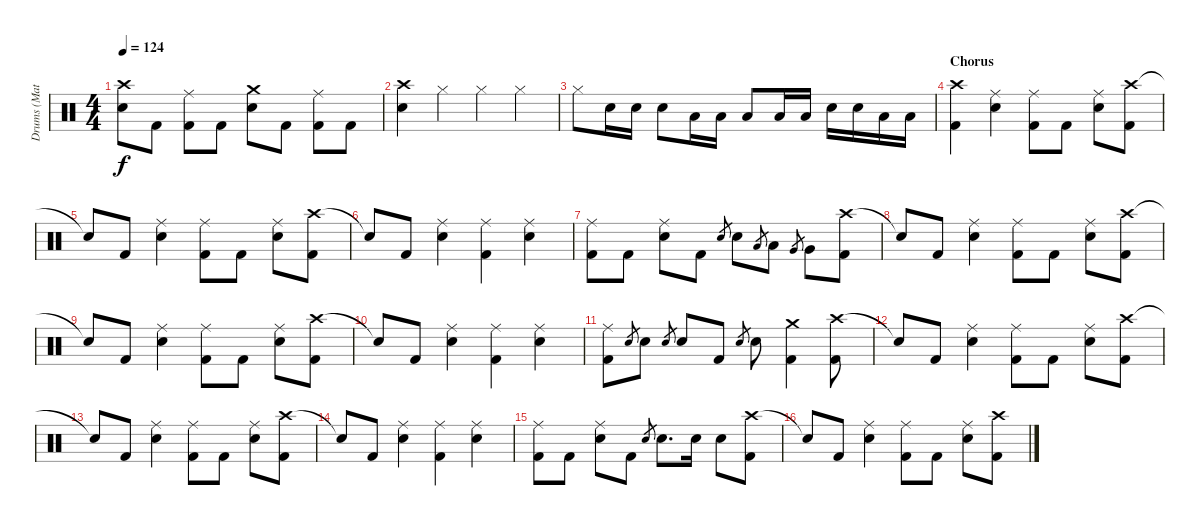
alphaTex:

\track ("Drums (Matt)" "Drums (Mat") {instrument percussion}
\staff {score}
\articulation defaults
\ts (4 4)
\tempo 124
\clef neutral
\ks c
("Crash high (hit)" "Snare (hit) 2").8{dy f} "Kick (hit) 2".8 ("Ride (middle)" "Kick (hit) 2").8 "Kick (hit) 2".8 ("Crash medium (hit)" "Snare (hit) 2").8 "Kick (hit) 2".8 ("Ride (middle)" "Kick (hit) 2").8 "Kick (hit) 2".8 |
("Crash high (hit)" "Snare (hit) 2").4 "Hi-Hat (closed)".4 "Hi-Hat (closed)".4 "Hi-Hat (closed)".4 |
"Hi-Hat (closed)".8 "Snare (hit) 2".16 "Snare (hit) 2".16 "Snare (hit) 2".8 "Low Tom (hit)".16 "Low Tom (hit)".16 "Low Tom (hit)".8 "Low Tom (hit)".16 "Low Tom (hit)".16 "Snare (hit) 2".16 "Snare (hit) 2".16 "Low Tom (hit)".16 "Low Tom (hit)".16 |
\section ("" "Chorus")
("Crash high (hit)" "Kick (hit) 2").4 ("Ride (middle)" "Snare (hit) 2").4 ("Ride (middle)" "Kick (hit) 2").8 "Kick (hit) 2".8 ("Ride (middle)" "Snare (hit) 2").8 ("Crash high (hit)" "Kick (hit) 2").8 |
"Snare (hit)"{t}.8 "Kick (hit) 2".8 ("Ride (middle)" "Snare (hit) 2").4 ("Ride (middle)" "Kick (hit) 2").8 "Kick (hit) 2".8 ("Ride (middle)" "Snare (hit) 2").8 ("Crash high (hit)" "Kick (hit) 2").8 |
"Snare (hit)"{t}.8 "Kick (hit) 2".8 ("Ride (middle)" "Snare (hit) 2").4 ("Ride (middle)" "Kick (hit) 2").4 ("Ride (middle)" "Snare (hit) 2").4 |
("Ride (middle)" "Kick (hit) 2").8 "Kick (hit) 2".8 ("Ride (middle)" "Snare (hit) 2").8 "Kick (hit) 2".8 "Snare (hit) 2".8{gr} "Snare (hit) 2".8 "Low Tom (hit)".8{gr} "Low Tom (hit)".8 "Very Low Tom (hit)".8{gr} "Very Low Tom (hit)".8 ("Crash high (hit)" "Kick (hit) 2").8 |
"Snare (hit)"{t}.8 "Kick (hit) 2".8 ("Ride (middle)" "Snare (hit) 2").4 ("Ride (middle)" "Kick (hit) 2").8 "Kick (hit) 2".8 ("Ride (middle)" "Snare (hit) 2").8 ("Crash high (hit)" "Kick (hit) 2").8 |
"Snare (hit)"{t}.8 "Kick (hit) 2".8 ("Ride (middle)" "Snare (hit) 2").4 ("Ride (middle)" "Kick (hit) 2").8 "Kick (hit) 2".8 ("Ride (middle)" "Snare (hit) 2").8 ("Crash high (hit)" "Kick (hit) 2").8 |
"Snare (hit)"{t}.8 "Kick (hit) 2".8 ("Ride (middle)" "Snare (hit) 2").4 ("Ride (middle)" "Kick (hit) 2").4 ("Ride (middle)" "Snare (hit) 2").4 |
("Ride (middle)" "Kick (hit) 2").8 "Snare (hit) 2".8{gr} "Snare (hit) 2".8 "Snare (hit) 2".8{gr} "Snare (hit) 2".8 "Kick (hit) 2".8 "Snare (hit) 2".8{gr} "Snare (hit) 2".8 ("Crash medium (hit)" "Kick (hit) 2").4 ("Crash high (hit)" "Kick (hit) 2").8 |
"Snare (hit)"{t}.8 "Kick (hit) 2".8 ("Ride (middle)" "Snare (hit) 2").4 ("Ride (middle)" "Kick (hit) 2").8 "Kick (hit) 2".8 ("Ride (middle)" "Snare (hit) 2").8 ("Crash high (hit)" "Kick (hit) 2").8 |
"Snare (hit)"{t}.8 "Kick (hit) 2".8 ("Ride (middle)" "Snare (hit) 2").4 ("Ride (middle)" "Kick (hit) 2").8 "Kick (hit) 2".8 ("Ride (middle)" "Snare (hit) 2").8 ("Crash high (hit)" "Kick (hit) 2").8 |
"Snare (hit)"{t}.8 "Kick (hit) 2".8 ("Ride (middle)" "Snare (hit) 2").4 ("Ride (middle)" "Kick (hit) 2").4 ("Ride (middle)" "Snare (hit) 2").4 |
("Ride (middle)" "Kick (hit) 2").8 "Kick (hit) 2".8 ("Ride (middle)" "Snare (hit) 2").8 "Kick (hit) 2".8 "Snare (hit) 2".8{gr} "Snare (hit) 2".8{d} "Snare (hit) 2".16 "Snare (hit) 2".8 ("Crash high (hit)" "Kick (hit) 2").8 |
"Snare (hit)"{t}.8 "Kick (hit) 2".8 ("Ride (middle)" "Snare (hit) 2").4 ("Ride (middle)" "Kick (hit) 2").8 "Kick (hit) 2".8 ("Ride (middle)" "Snare (hit) 2").8 ("Crash high (hit)" "Kick (hit) 2").8
